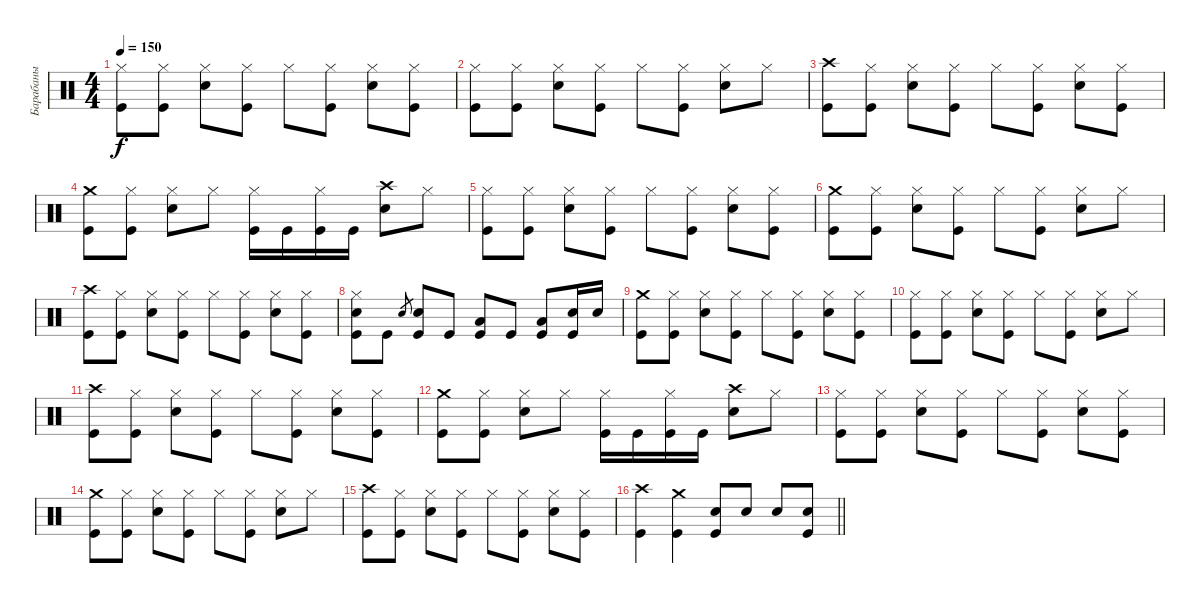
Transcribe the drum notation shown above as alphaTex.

\track ("Барабаны" "Барабаны") {instrument percussion}
\staff {score}
\articulation defaults
\ts (4 4)
\tempo 150
\clef neutral
\ks c
("Hi-Hat (closed)" "Kick (hit)").8{dy f} ("Hi-Hat (closed)" "Kick (hit)").8 ("Hi-Hat (closed)" "Electric Snare (hit)").8 ("Hi-Hat (closed)" "Kick (hit)").8 "Hi-Hat (closed)".8 ("Hi-Hat (closed)" "Kick (hit)").8 ("Hi-Hat (closed)" "Electric Snare (hit)").8 ("Hi-Hat (closed)" "Kick (hit)").8 |
("Hi-Hat (closed)" "Kick (hit)").8 ("Hi-Hat (closed)" "Kick (hit)").8 ("Hi-Hat (closed)" "Electric Snare (hit)").8 ("Hi-Hat (closed)" "Kick (hit)").8 "Hi-Hat (closed)".8 ("Hi-Hat (closed)" "Kick (hit)").8 ("Hi-Hat (closed)" "Electric Snare (hit)").8 "Hi-Hat (closed)".8 |
("Crash high (hit)" "Kick (hit)").8 ("Hi-Hat (closed)" "Kick (hit)").8 ("Hi-Hat (closed)" "Electric Snare (hit)").8 ("Hi-Hat (closed)" "Kick (hit)").8 "Hi-Hat (closed)".8 ("Hi-Hat (closed)" "Kick (hit)").8 ("Hi-Hat (closed)" "Electric Snare (hit)").8 ("Hi-Hat (closed)" "Kick (hit)").8 |
("Crash medium (hit)" "Kick (hit)").8 ("Hi-Hat (closed)" "Kick (hit)").8 ("Hi-Hat (closed)" "Electric Snare (hit)").8 "Hi-Hat (closed)".8 ("Hi-Hat (closed)" "Kick (hit)").16 "Kick (hit)".16 ("Hi-Hat (closed)" "Kick (hit)").16 "Kick (hit)".16 ("Crash high (hit)" "Electric Snare (hit)").8 "Hi-Hat (closed)".8 |
("Hi-Hat (closed)" "Kick (hit)").8 ("Hi-Hat (closed)" "Kick (hit)").8 ("Hi-Hat (closed)" "Electric Snare (hit)").8 ("Hi-Hat (closed)" "Kick (hit)").8 "Hi-Hat (closed)".8 ("Hi-Hat (closed)" "Kick (hit)").8 ("Hi-Hat (closed)" "Electric Snare (hit)").8 ("Hi-Hat (closed)" "Kick (hit)").8 |
("Crash medium (hit)" "Kick (hit)").8 ("Hi-Hat (closed)" "Kick (hit)").8 ("Hi-Hat (closed)" "Electric Snare (hit)").8 ("Hi-Hat (closed)" "Kick (hit)").8 "Hi-Hat (closed)".8 ("Hi-Hat (closed)" "Kick (hit)").8 ("Hi-Hat (closed)" "Electric Snare (hit)").8 "Hi-Hat (closed)".8 |
("Crash high (hit)" "Kick (hit)").8 ("Hi-Hat (closed)" "Kick (hit)").8 ("Hi-Hat (closed)" "Electric Snare (hit)").8 ("Hi-Hat (closed)" "Kick (hit)").8 "Hi-Hat (closed)".8 ("Hi-Hat (closed)" "Kick (hit)").8 ("Hi-Hat (closed)" "Electric Snare (hit)").8 ("Hi-Hat (closed)" "Kick (hit)").8 |
("Hi-Hat (closed)" "Electric Snare (hit)" "Kick (hit)").8 "Kick (hit)".8 "Snare (hit) 2"{h}.8{gr} ("Snare (hit) 2" "Kick (hit)").8 "Kick (hit)".8 ("Low Tom (hit)" "Kick (hit)").8 "Kick (hit)".8 ("Low Tom (hit)" "Kick (hit)").8 ("Snare (hit) 2" "Kick (hit)").16 "Snare (hit) 2".16 |
("Crash medium (hit)" "Kick (hit)").8 ("Hi-Hat (closed)" "Kick (hit)").8 ("Hi-Hat (closed)" "Electric Snare (hit)").8 ("Hi-Hat (closed)" "Kick (hit)").8 "Hi-Hat (closed)".8 ("Hi-Hat (closed)" "Kick (hit)").8 ("Hi-Hat (closed)" "Electric Snare (hit)").8 ("Hi-Hat (closed)" "Kick (hit)").8 |
("Hi-Hat (closed)" "Kick (hit)").8 ("Hi-Hat (closed)" "Kick (hit)").8 ("Hi-Hat (closed)" "Electric Snare (hit)").8 ("Hi-Hat (closed)" "Kick (hit)").8 "Hi-Hat (closed)".8 ("Hi-Hat (closed)" "Kick (hit)").8 ("Hi-Hat (closed)" "Electric Snare (hit)").8 "Hi-Hat (closed)".8 |
("Crash high (hit)" "Kick (hit)").8 ("Hi-Hat (closed)" "Kick (hit)").8 ("Hi-Hat (closed)" "Electric Snare (hit)").8 ("Hi-Hat (closed)" "Kick (hit)").8 "Hi-Hat (closed)".8 ("Hi-Hat (closed)" "Kick (hit)").8 ("Hi-Hat (closed)" "Electric Snare (hit)").8 ("Hi-Hat (closed)" "Kick (hit)").8 |
("Crash medium (hit)" "Kick (hit)").8 ("Hi-Hat (closed)" "Kick (hit)").8 ("Hi-Hat (closed)" "Electric Snare (hit)").8 "Hi-Hat (closed)".8 ("Hi-Hat (closed)" "Kick (hit)").16 "Kick (hit)".16 ("Hi-Hat (closed)" "Kick (hit)").16 "Kick (hit)".16 ("Crash high (hit)" "Electric Snare (hit)").8 "Hi-Hat (closed)".8 |
("Hi-Hat (closed)" "Kick (hit)").8 ("Hi-Hat (closed)" "Kick (hit)").8 ("Hi-Hat (closed)" "Electric Snare (hit)").8 ("Hi-Hat (closed)" "Kick (hit)").8 "Hi-Hat (closed)".8 ("Hi-Hat (closed)" "Kick (hit)").8 ("Hi-Hat (closed)" "Electric Snare (hit)").8 ("Hi-Hat (closed)" "Kick (hit)").8 |
("Crash medium (hit)" "Kick (hit)").8 ("Hi-Hat (closed)" "Kick (hit)").8 ("Hi-Hat (closed)" "Electric Snare (hit)").8 ("Hi-Hat (closed)" "Kick (hit)").8 "Hi-Hat (closed)".8 ("Hi-Hat (closed)" "Kick (hit)").8 ("Hi-Hat (closed)" "Electric Snare (hit)").8 "Hi-Hat (closed)".8 |
("Crash high (hit)" "Kick (hit)").8 ("Hi-Hat (closed)" "Kick (hit)").8 ("Hi-Hat (closed)" "Electric Snare (hit)").8 ("Hi-Hat (closed)" "Kick (hit)").8 "Hi-Hat (closed)".8 ("Hi-Hat (closed)" "Kick (hit)").8 ("Hi-Hat (closed)" "Electric Snare (hit)").8 ("Hi-Hat (closed)" "Kick (hit)").8 |
\barLineRight lightlight
("Crash high (hit)" "Kick (hit)").4 ("Crash medium (hit)" "Kick (hit)").4 ("Snare (hit) 2" "Kick (hit)").8 "Snare (hit) 2".8 "Electric Snare (hit)".8 ("Electric Snare (hit)" "Kick (hit)").8
